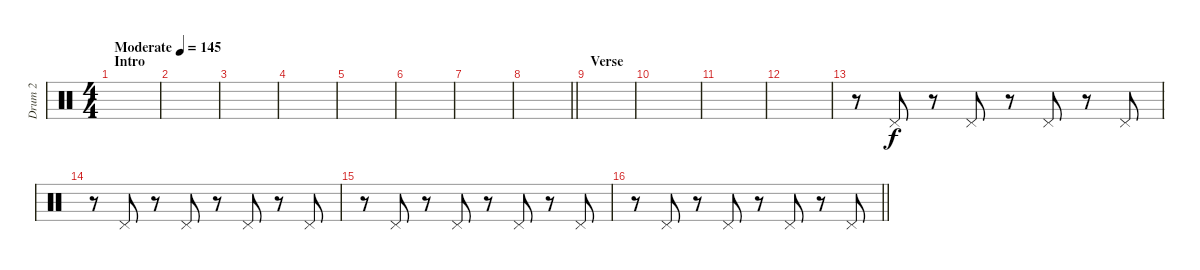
\track ("Drum 2" "Drum 2") {instrument percussion}
\staff {score}
\articulation defaults
\ts (4 4)
\section ("" "Intro")
\tempo (145 "Moderate")
\clef neutral
\ks c
|
|
|
|
|
|
|
\barLineRight lightlight
|
\section ("" "Verse")
|
|
|
|
r.8 "Pedal Hi-Hat (hit)".8 r.8 "Pedal Hi-Hat (hit)".8 r.8 "Pedal Hi-Hat (hit)".8 r.8 "Pedal Hi-Hat (hit)".8 |
r.8 "Pedal Hi-Hat (hit)".8 r.8 "Pedal Hi-Hat (hit)".8 r.8 "Pedal Hi-Hat (hit)".8 r.8 "Pedal Hi-Hat (hit)".8 |
r.8 "Pedal Hi-Hat (hit)".8 r.8 "Pedal Hi-Hat (hit)".8 r.8 "Pedal Hi-Hat (hit)".8 r.8 "Pedal Hi-Hat (hit)".8 |
\barLineRight lightlight
r.8 "Pedal Hi-Hat (hit)".8 r.8 "Pedal Hi-Hat (hit)".8 r.8 "Pedal Hi-Hat (hit)".8 r.8 "Pedal Hi-Hat (hit)".8
